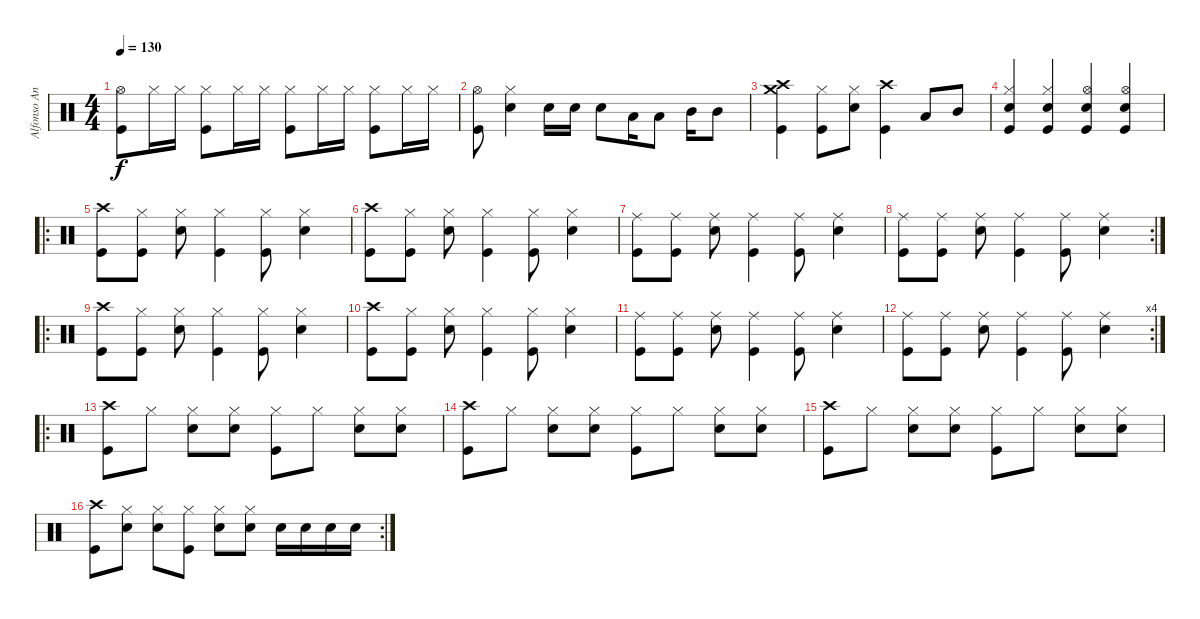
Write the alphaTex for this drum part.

\track ("Alfonso Andre" "Alfonso An") {instrument percussion}
\staff {score}
\articulation defaults
\ts (4 4)
\tempo 130
\clef neutral
\ks c
("Kick (hit)" "Hi-Hat (open)").8{dy f} "Hi-Hat (closed)".16 "Hi-Hat (closed)".16 ("Kick (hit)" "Hi-Hat (closed)").8 "Hi-Hat (closed)".16 "Hi-Hat (closed)".16 ("Kick (hit)" "Hi-Hat (closed)").8 "Hi-Hat (closed)".16 "Hi-Hat (closed)".16 ("Kick (hit)" "Hi-Hat (closed)").8 "Hi-Hat (closed)".16 "Hi-Hat (closed)".16 |
("Kick (hit)" "Hi-Hat (open)").8 ("Snare (hit) 2" "Hi-Hat (closed)").4 "Snare (hit) 2".16 "Snare (hit) 2".16 "Snare (hit) 2".8 "Low Tom (hit)".16 "Low Tom (hit)".8 "Mid Tom (hit)".16 "Mid Tom (hit)".8 |
("Kick (hit)" "Crash high (hit)" "Crash medium (hit)").4 ("Kick (hit)" "Hi-Hat (closed)").8 ("Snare (hit) 2" "Hi-Hat (closed)").8 ("Kick (hit)" "Crash high (hit)").4 "Low Tom (hit)".8 "Mid Tom (hit)".8 |
("Kick (hit)" "Snare (hit) 2" "Hi-Hat (closed)").4 ("Kick (hit)" "Snare (hit) 2" "Hi-Hat (closed)").4 ("Kick (hit)" "Snare (hit) 2" "Hi-Hat (open)").4 ("Kick (hit)" "Snare (hit) 2" "Hi-Hat (open)").4 |
\ro
("Kick (hit)" "Crash high (hit)").8 ("Kick (hit)" "Hi-Hat (closed)").8 ("Snare (hit) 2" "Hi-Hat (closed)").8 ("Kick (hit)" "Hi-Hat (closed)").4 ("Kick (hit)" "Hi-Hat (closed)").8 ("Snare (hit) 2" "Hi-Hat (closed)").4 |
("Kick (hit)" "Crash high (hit)").8 ("Kick (hit)" "Hi-Hat (closed)").8 ("Snare (hit) 2" "Hi-Hat (closed)").8 ("Kick (hit)" "Hi-Hat (closed)").4 ("Kick (hit)" "Hi-Hat (closed)").8 ("Snare (hit) 2" "Hi-Hat (closed)").4 |
("Kick (hit)" "Ride (middle)").8 ("Kick (hit)" "Ride (middle)").8 ("Snare (hit) 2" "Ride (middle)").8 ("Kick (hit)" "Ride (middle)").4 ("Kick (hit)" "Ride (middle)").8 ("Snare (hit) 2" "Ride (middle)").4 |
\rc 2
("Kick (hit)" "Ride (middle)").8 ("Kick (hit)" "Ride (middle)").8 ("Snare (hit) 2" "Ride (middle)").8 ("Kick (hit)" "Ride (middle)").4 ("Kick (hit)" "Ride (middle)").8 ("Snare (hit) 2" "Ride (middle)").4 |
\ro
("Kick (hit)" "Crash high (hit)").8 ("Kick (hit)" "Hi-Hat (closed)").8 ("Snare (hit) 2" "Hi-Hat (closed)").8 ("Kick (hit)" "Hi-Hat (closed)").4 ("Kick (hit)" "Hi-Hat (closed)").8 ("Snare (hit) 2" "Hi-Hat (closed)").4 |
("Kick (hit)" "Crash high (hit)").8 ("Kick (hit)" "Hi-Hat (closed)").8 ("Snare (hit) 2" "Hi-Hat (closed)").8 ("Kick (hit)" "Hi-Hat (closed)").4 ("Kick (hit)" "Hi-Hat (closed)").8 ("Snare (hit) 2" "Hi-Hat (closed)").4 |
("Kick (hit)" "Ride (middle)").8 ("Kick (hit)" "Ride (middle)").8 ("Snare (hit) 2" "Ride (middle)").8 ("Kick (hit)" "Ride (middle)").4 ("Kick (hit)" "Ride (middle)").8 ("Snare (hit) 2" "Ride (middle)").4 |
\rc 4
("Kick (hit)" "Ride (middle)").8 ("Kick (hit)" "Ride (middle)").8 ("Snare (hit) 2" "Ride (middle)").8 ("Kick (hit)" "Ride (middle)").4 ("Kick (hit)" "Ride (middle)").8 ("Snare (hit) 2" "Ride (middle)").4 |
\ro
("Kick (hit)" "Crash high (hit)").8 "Hi-Hat (closed)".8 ("Snare (hit) 2" "Hi-Hat (closed)").8 ("Snare (hit) 2" "Hi-Hat (closed)").8 ("Kick (hit)" "Hi-Hat (closed)").8 "Hi-Hat (closed)".8 ("Snare (hit) 2" "Hi-Hat (closed)").8 ("Snare (hit) 2" "Hi-Hat (closed)").8 |
("Kick (hit)" "Crash high (hit)").8 "Hi-Hat (closed)".8 ("Snare (hit) 2" "Hi-Hat (closed)").8 ("Snare (hit) 2" "Hi-Hat (closed)").8 ("Kick (hit)" "Hi-Hat (closed)").8 "Hi-Hat (closed)".8 ("Snare (hit) 2" "Hi-Hat (closed)").8 ("Snare (hit) 2" "Hi-Hat (closed)").8 |
("Kick (hit)" "Crash high (hit)").8 "Hi-Hat (closed)".8 ("Snare (hit) 2" "Hi-Hat (closed)").8 ("Snare (hit) 2" "Hi-Hat (closed)").8 ("Kick (hit)" "Hi-Hat (closed)").8 "Hi-Hat (closed)".8 ("Snare (hit) 2" "Hi-Hat (closed)").8 ("Snare (hit) 2" "Hi-Hat (closed)").8 |
\rc 2
("Kick (hit)" "Crash high (hit)").8 ("Snare (hit) 2" "Hi-Hat (closed)").8 ("Snare (hit) 2" "Hi-Hat (closed)").8 ("Kick (hit)" "Hi-Hat (closed)").8 ("Snare (hit) 2" "Hi-Hat (closed)").8 ("Snare (hit) 2" "Hi-Hat (closed)").8 "Snare (hit) 2".16 "Snare (hit) 2".16 "Snare (hit) 2".16 "Snare (hit) 2".16
